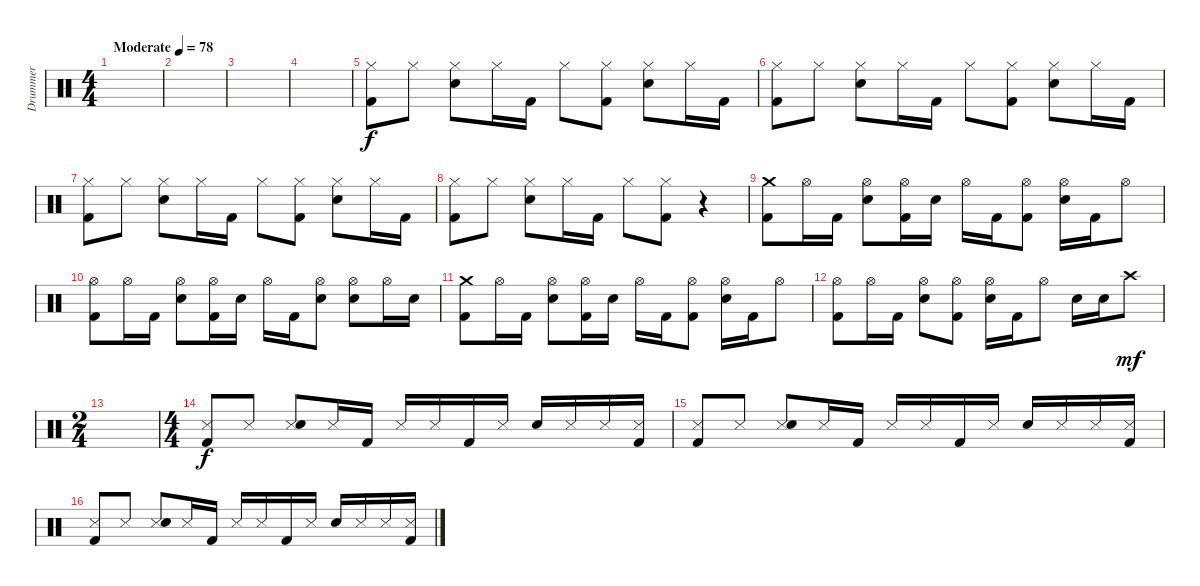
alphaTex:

\track ("Drummer" "Drummer") {instrument percussion}
\staff {score}
\articulation defaults
\ts (4 4)
\tempo (78 "Moderate")
\clef neutral
\ks c
|
|
|
|
("Hi-Hat (closed)" "Kick (hit) 2").8 "Hi-Hat (closed)".8 ("Hi-Hat (closed)" "Electric Snare (hit)").8 "Hi-Hat (closed)".16 "Kick (hit) 2".16 "Hi-Hat (closed)".8 ("Hi-Hat (closed)" "Kick (hit) 2").8 ("Hi-Hat (closed)" "Electric Snare (hit)").8 "Hi-Hat (closed)".16 "Kick (hit) 2".16 |
("Hi-Hat (closed)" "Kick (hit) 2").8 "Hi-Hat (closed)".8 ("Hi-Hat (closed)" "Electric Snare (hit)").8 "Hi-Hat (closed)".16 "Kick (hit) 2".16 "Hi-Hat (closed)".8 ("Hi-Hat (closed)" "Kick (hit) 2").8 ("Hi-Hat (closed)" "Electric Snare (hit)").8 "Hi-Hat (closed)".16 "Kick (hit) 2".16 |
("Hi-Hat (closed)" "Kick (hit) 2").8 "Hi-Hat (closed)".8 ("Hi-Hat (closed)" "Electric Snare (hit)").8 "Hi-Hat (closed)".16 "Kick (hit) 2".16 "Hi-Hat (closed)".8 ("Hi-Hat (closed)" "Kick (hit) 2").8 ("Hi-Hat (closed)" "Electric Snare (hit)").8 "Hi-Hat (closed)".16 "Kick (hit) 2".16 |
("Hi-Hat (closed)" "Kick (hit) 2").8 "Hi-Hat (closed)".8 ("Hi-Hat (closed)" "Electric Snare (hit)").8 "Hi-Hat (closed)".16 "Kick (hit) 2".16 "Hi-Hat (closed)".8 ("Hi-Hat (closed)" "Kick (hit) 2").8 r.4 |
("Crash medium (hit)" "Kick (hit) 2").8 "Hi-Hat (open)".16 "Kick (hit) 2".16 ("Hi-Hat (open)" "Electric Snare (hit)").8 ("Hi-Hat (open)" "Kick (hit) 2").16 "Electric Snare (hit)".16 "Hi-Hat (open)".16 "Kick (hit) 2".16 ("Hi-Hat (open)" "Kick (hit) 2").8 ("Hi-Hat (open)" "Electric Snare (hit)").16 "Kick (hit) 2".16 "Hi-Hat (open)".8 |
("Hi-Hat (open)" "Kick (hit) 2").8 "Hi-Hat (open)".16 "Kick (hit) 2".16 ("Hi-Hat (open)" "Electric Snare (hit)").8 ("Hi-Hat (open)" "Kick (hit) 2").16 "Electric Snare (hit)".16 "Hi-Hat (open)".16 "Kick (hit) 2".16 ("Hi-Hat (open)" "Electric Snare (hit)").8 ("Hi-Hat (open)" "Electric Snare (hit)").8 "Hi-Hat (open)".16 "Electric Snare (hit)".16 |
("Crash medium (hit)" "Kick (hit) 2").8 "Hi-Hat (open)".16 "Kick (hit) 2".16 ("Hi-Hat (open)" "Electric Snare (hit)").8 ("Hi-Hat (open)" "Kick (hit) 2").16 "Electric Snare (hit)".16 "Hi-Hat (open)".16 "Kick (hit) 2".16 ("Hi-Hat (open)" "Kick (hit) 2").8 ("Hi-Hat (open)" "Electric Snare (hit)").16 "Kick (hit) 2".16 "Hi-Hat (open)".8 |
("Hi-Hat (open)" "Kick (hit) 2").8 "Hi-Hat (open)".16 "Kick (hit) 2".16 ("Hi-Hat (open)" "Electric Snare (hit)").8 ("Hi-Hat (open)" "Kick (hit) 2").8 ("Hi-Hat (open)" "Electric Snare (hit)").16 "Kick (hit) 2".16 "Hi-Hat (open)".8 "Electric Snare (hit)".16 "Electric Snare (hit)".16 "Crash high (hit)".8{dy mf} |
\ts (2 4)
|
\ts (4 4)
("Snare (side stick) 3" "Kick (hit) 2").8{dy f} "Snare (side stick) 3".8 ("Snare (side stick) 3" "Electric Snare (hit)").8 "Snare (side stick) 3".16 "Kick (hit) 2".16 "Snare (side stick) 3".16 "Snare (side stick) 3".16 "Kick (hit) 2".16 "Snare (side stick) 3".16 "Electric Snare (hit)".16 "Snare (side stick) 3".16 "Snare (side stick) 3".16 ("Snare (side stick) 3" "Kick (hit) 2").16 |
("Snare (side stick) 3" "Kick (hit) 2").8 "Snare (side stick) 3".8 ("Snare (side stick) 3" "Electric Snare (hit)").8 "Snare (side stick) 3".16 "Kick (hit) 2".16 "Snare (side stick) 3".16 "Snare (side stick) 3".16 "Kick (hit) 2".16 "Snare (side stick) 3".16 "Electric Snare (hit)".16 "Snare (side stick) 3".16 "Snare (side stick) 3".16 ("Snare (side stick) 3" "Kick (hit) 2").16 |
("Snare (side stick) 3" "Kick (hit) 2").8 "Snare (side stick) 3".8 ("Snare (side stick) 3" "Electric Snare (hit)").8 "Snare (side stick) 3".16 "Kick (hit) 2".16 "Snare (side stick) 3".16 "Snare (side stick) 3".16 "Kick (hit) 2".16 "Snare (side stick) 3".16 "Electric Snare (hit)".16 "Snare (side stick) 3".16 "Snare (side stick) 3".16 ("Snare (side stick) 3" "Kick (hit) 2").16
